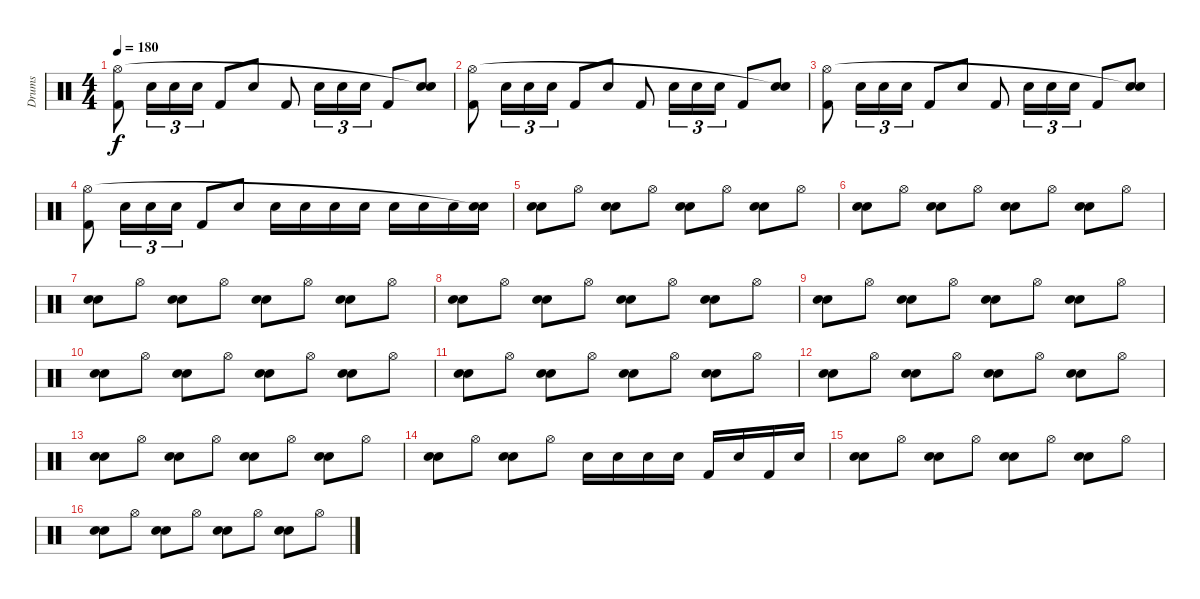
\track ("Drums" "Drums") {instrument percussion}
\staff {score}
\articulation defaults
\ts (4 4)
\tempo 180
\clef neutral
\ks c
("Kick (hit) 2" "Hi-Hat (open)").8{dy f} "Snare (hit) 2".16{tu (3 2)} "Snare (hit) 2".16{tu (3 2)} "Snare (hit) 2".16{tu (3 2)} "Kick (hit) 2".8 "Snare (hit) 2".8 "Kick (hit) 2".8 "Snare (hit) 2".16{tu (3 2)} "Snare (hit) 2".16{tu (3 2)} "Snare (hit) 2".16{tu (3 2)} "Kick (hit) 2".8 ("Snare (hit) 2" "Snare (hit)"{t}).8 |
("Kick (hit) 2" "Hi-Hat (open)").8 "Snare (hit) 2".16{tu (3 2)} "Snare (hit) 2".16{tu (3 2)} "Snare (hit) 2".16{tu (3 2)} "Kick (hit) 2".8 "Snare (hit) 2".8 "Kick (hit) 2".8 "Snare (hit) 2".16{tu (3 2)} "Snare (hit) 2".16{tu (3 2)} "Snare (hit) 2".16{tu (3 2)} "Kick (hit) 2".8 ("Snare (hit) 2" "Snare (hit)"{t}).8 |
("Kick (hit) 2" "Hi-Hat (open)").8{volume 16} "Snare (hit) 2".16{tu (3 2)} "Snare (hit) 2".16{tu (3 2)} "Snare (hit) 2".16{tu (3 2)} "Kick (hit) 2".8 "Snare (hit) 2".8 "Kick (hit) 2".8 "Snare (hit) 2".16{tu (3 2)} "Snare (hit) 2".16{tu (3 2)} "Snare (hit) 2".16{tu (3 2)} "Kick (hit) 2".8 ("Snare (hit) 2" "Snare (hit)"{t}).8 |
("Kick (hit) 2" "Hi-Hat (open)").8 "Snare (hit) 2".16{tu (3 2)} "Snare (hit) 2".16{tu (3 2)} "Snare (hit) 2".16{tu (3 2)} "Kick (hit) 2".8 "Snare (hit) 2".8 "Snare (hit) 2".16 "Snare (hit) 2".16 "Snare (hit) 2".16 "Snare (hit) 2".16 "Snare (hit) 2".16 "Snare (hit) 2".16 "Snare (hit) 2".16 ("Snare (hit) 2" "Snare (hit)"{t}).16 |
("Electric Snare (hit)" "Snare (hit) 2").8 "Hi-Hat (open)".8 ("Electric Snare (hit)" "Snare (hit) 2").8 "Hi-Hat (open)".8 ("Electric Snare (hit)" "Snare (hit) 2").8 "Hi-Hat (open)".8 ("Electric Snare (hit)" "Snare (hit) 2").8 "Hi-Hat (open)".8 |
("Electric Snare (hit)" "Snare (hit) 2").8 "Hi-Hat (open)".8 ("Electric Snare (hit)" "Snare (hit) 2").8 "Hi-Hat (open)".8 ("Electric Snare (hit)" "Snare (hit) 2").8 "Hi-Hat (open)".8 ("Electric Snare (hit)" "Snare (hit) 2").8 "Hi-Hat (open)".8 |
("Electric Snare (hit)" "Snare (hit) 2").8 "Hi-Hat (open)".8 ("Electric Snare (hit)" "Snare (hit) 2").8 "Hi-Hat (open)".8 ("Electric Snare (hit)" "Snare (hit) 2").8 "Hi-Hat (open)".8 ("Electric Snare (hit)" "Snare (hit) 2").8 "Hi-Hat (open)".8 |
("Electric Snare (hit)" "Snare (hit) 2").8 "Hi-Hat (open)".8 ("Electric Snare (hit)" "Snare (hit) 2").8 "Hi-Hat (open)".8 ("Electric Snare (hit)" "Snare (hit) 2").8 "Hi-Hat (open)".8 ("Electric Snare (hit)" "Snare (hit) 2").8 "Hi-Hat (open)".8 |
("Electric Snare (hit)" "Snare (hit) 2").8 "Hi-Hat (open)".8 ("Electric Snare (hit)" "Snare (hit) 2").8 "Hi-Hat (open)".8 ("Electric Snare (hit)" "Snare (hit) 2").8 "Hi-Hat (open)".8 ("Electric Snare (hit)" "Snare (hit) 2").8 "Hi-Hat (open)".8 |
("Electric Snare (hit)" "Snare (hit) 2").8 "Hi-Hat (open)".8 ("Electric Snare (hit)" "Snare (hit) 2").8 "Hi-Hat (open)".8 ("Electric Snare (hit)" "Snare (hit) 2").8 "Hi-Hat (open)".8 ("Electric Snare (hit)" "Snare (hit) 2").8 "Hi-Hat (open)".8 |
("Electric Snare (hit)" "Snare (hit) 2").8 "Hi-Hat (open)".8 ("Electric Snare (hit)" "Snare (hit) 2").8 "Hi-Hat (open)".8 ("Electric Snare (hit)" "Snare (hit) 2").8 "Hi-Hat (open)".8 ("Electric Snare (hit)" "Snare (hit) 2").8 "Hi-Hat (open)".8 |
("Electric Snare (hit)" "Snare (hit) 2").8 "Hi-Hat (open)".8 ("Electric Snare (hit)" "Snare (hit) 2").8 "Hi-Hat (open)".8 ("Electric Snare (hit)" "Snare (hit) 2").8 "Hi-Hat (open)".8 ("Electric Snare (hit)" "Snare (hit) 2").8 "Hi-Hat (open)".8 |
("Electric Snare (hit)" "Snare (hit) 2").8 "Hi-Hat (open)".8 ("Electric Snare (hit)" "Snare (hit) 2").8 "Hi-Hat (open)".8 ("Electric Snare (hit)" "Snare (hit) 2").8 "Hi-Hat (open)".8 ("Electric Snare (hit)" "Snare (hit) 2").8 "Hi-Hat (open)".8 |
("Electric Snare (hit)" "Snare (hit) 2").8 "Hi-Hat (open)".8 ("Electric Snare (hit)" "Snare (hit) 2").8 "Hi-Hat (open)".8 "Electric Snare (hit)".16 "Electric Snare (hit)".16 "Electric Snare (hit)".16 "Electric Snare (hit)".16 "Kick (hit) 2".16 "Snare (hit) 2".16 "Kick (hit) 2".16 "Electric Snare (hit)".16 |
("Electric Snare (hit)" "Snare (hit) 2").8 "Hi-Hat (open)".8 ("Electric Snare (hit)" "Snare (hit) 2").8 "Hi-Hat (open)".8 ("Electric Snare (hit)" "Snare (hit) 2").8 "Hi-Hat (open)".8 ("Electric Snare (hit)" "Snare (hit) 2").8 "Hi-Hat (open)".8 |
("Electric Snare (hit)" "Snare (hit) 2").8 "Hi-Hat (open)".8 ("Electric Snare (hit)" "Snare (hit) 2").8 "Hi-Hat (open)".8 ("Electric Snare (hit)" "Snare (hit) 2").8 "Hi-Hat (open)".8 ("Electric Snare (hit)" "Snare (hit) 2").8 "Hi-Hat (open)".8
